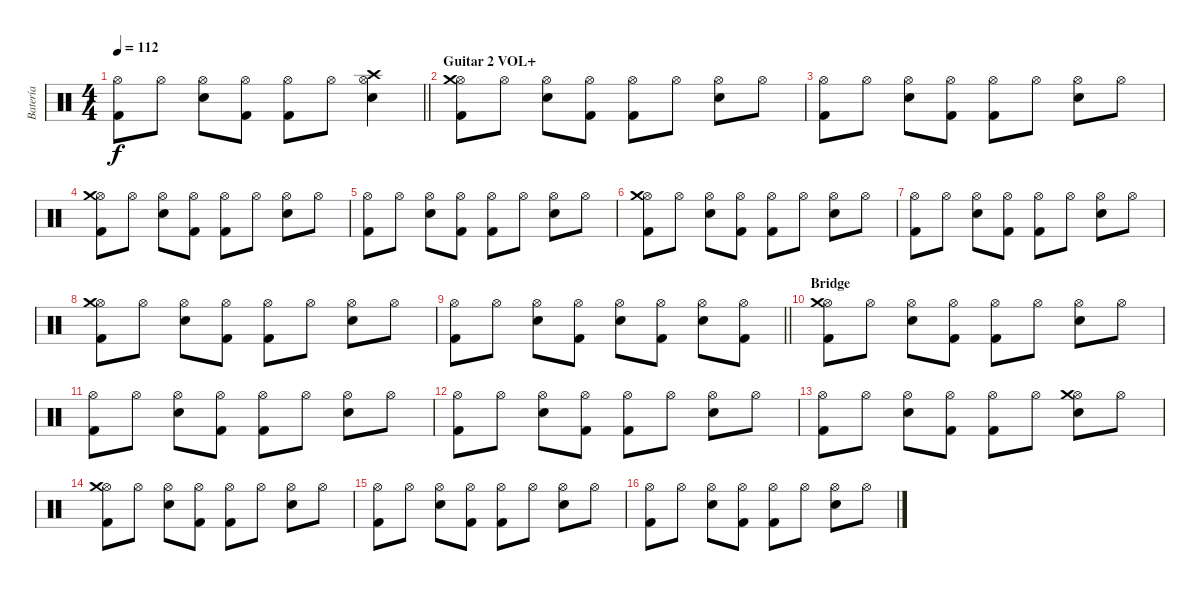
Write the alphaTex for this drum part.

\track ("Batería" "Batería") {instrument percussion}
\staff {score}
\articulation defaults
\ts (4 4)
\tempo 112
\clef neutral
\barLineRight lightlight
\ks c
("Hi-Hat (open)" "Kick (hit) 2").8{dy f} "Hi-Hat (open)".8 ("Hi-Hat (open)" "Electric Snare (hit)").8 ("Hi-Hat (open)" "Kick (hit) 2").8 ("Hi-Hat (open)" "Kick (hit) 2").8 "Hi-Hat (open)".8 ("Hi-Hat (open)" "Electric Snare (hit)" "Crash high (hit)").4 |
\section ("" "Guitar 2 VOL+")
("Hi-Hat (open)" "Kick (hit) 2" "Crash medium (hit)").8 "Hi-Hat (open)".8 ("Hi-Hat (open)" "Electric Snare (hit)").8 ("Hi-Hat (open)" "Kick (hit) 2").8 ("Hi-Hat (open)" "Kick (hit) 2").8 "Hi-Hat (open)".8 ("Hi-Hat (open)" "Electric Snare (hit)").8 "Hi-Hat (open)".8 |
("Hi-Hat (open)" "Kick (hit) 2").8 "Hi-Hat (open)".8 ("Hi-Hat (open)" "Electric Snare (hit)").8 ("Hi-Hat (open)" "Kick (hit) 2").8 ("Hi-Hat (open)" "Kick (hit) 2").8 "Hi-Hat (open)".8 ("Hi-Hat (open)" "Electric Snare (hit)").8 "Hi-Hat (open)".8 |
("Hi-Hat (open)" "Kick (hit) 2" "Crash medium (hit)").8 "Hi-Hat (open)".8 ("Hi-Hat (open)" "Electric Snare (hit)").8 ("Hi-Hat (open)" "Kick (hit) 2").8 ("Hi-Hat (open)" "Kick (hit) 2").8 "Hi-Hat (open)".8 ("Hi-Hat (open)" "Electric Snare (hit)").8 "Hi-Hat (open)".8 |
("Hi-Hat (open)" "Kick (hit) 2").8 "Hi-Hat (open)".8 ("Hi-Hat (open)" "Electric Snare (hit)").8 ("Hi-Hat (open)" "Kick (hit) 2").8 ("Hi-Hat (open)" "Kick (hit) 2").8 "Hi-Hat (open)".8 ("Hi-Hat (open)" "Electric Snare (hit)").8 "Hi-Hat (open)".8 |
("Hi-Hat (open)" "Kick (hit) 2" "Crash medium (hit)").8 "Hi-Hat (open)".8 ("Hi-Hat (open)" "Electric Snare (hit)").8 ("Hi-Hat (open)" "Kick (hit) 2").8 ("Hi-Hat (open)" "Kick (hit) 2").8 "Hi-Hat (open)".8 ("Hi-Hat (open)" "Electric Snare (hit)").8 "Hi-Hat (open)".8 |
("Hi-Hat (open)" "Kick (hit) 2").8 "Hi-Hat (open)".8 ("Hi-Hat (open)" "Electric Snare (hit)").8 ("Hi-Hat (open)" "Kick (hit) 2").8 ("Hi-Hat (open)" "Kick (hit) 2").8 "Hi-Hat (open)".8 ("Hi-Hat (open)" "Electric Snare (hit)").8 "Hi-Hat (open)".8 |
("Hi-Hat (open)" "Kick (hit) 2" "Crash medium (hit)").8 "Hi-Hat (open)".8 ("Hi-Hat (open)" "Electric Snare (hit)").8 ("Hi-Hat (open)" "Kick (hit) 2").8 ("Hi-Hat (open)" "Kick (hit) 2").8 "Hi-Hat (open)".8 ("Hi-Hat (open)" "Electric Snare (hit)").8 "Hi-Hat (open)".8 |
\barLineRight lightlight
("Hi-Hat (open)" "Kick (hit) 2").8 "Hi-Hat (open)".8 ("Hi-Hat (open)" "Electric Snare (hit)").8 ("Hi-Hat (open)" "Kick (hit) 2").8 ("Hi-Hat (open)" "Electric Snare (hit)").8 ("Hi-Hat (open)" "Kick (hit) 2").8 ("Hi-Hat (open)" "Electric Snare (hit)").8 ("Hi-Hat (open)" "Kick (hit) 2").8 |
\section ("" "Bridge")
("Hi-Hat (open)" "Kick (hit) 2" "Crash medium (hit)").8 "Hi-Hat (open)".8 ("Hi-Hat (open)" "Electric Snare (hit)").8 ("Hi-Hat (open)" "Kick (hit) 2").8 ("Hi-Hat (open)" "Kick (hit) 2").8 "Hi-Hat (open)".8 ("Hi-Hat (open)" "Electric Snare (hit)").8 "Hi-Hat (open)".8 |
("Hi-Hat (open)" "Kick (hit) 2").8 "Hi-Hat (open)".8 ("Hi-Hat (open)" "Electric Snare (hit)").8 ("Hi-Hat (open)" "Kick (hit) 2").8 ("Hi-Hat (open)" "Kick (hit) 2").8 "Hi-Hat (open)".8 ("Hi-Hat (open)" "Electric Snare (hit)").8 "Hi-Hat (open)".8 |
("Hi-Hat (open)" "Kick (hit) 2").8 "Hi-Hat (open)".8 ("Hi-Hat (open)" "Electric Snare (hit)").8 ("Hi-Hat (open)" "Kick (hit) 2").8 ("Hi-Hat (open)" "Kick (hit) 2").8 "Hi-Hat (open)".8 ("Hi-Hat (open)" "Electric Snare (hit)").8 "Hi-Hat (open)".8 |
("Hi-Hat (open)" "Kick (hit) 2").8 "Hi-Hat (open)".8 ("Hi-Hat (open)" "Electric Snare (hit)").8 ("Hi-Hat (open)" "Kick (hit) 2").8 ("Hi-Hat (open)" "Kick (hit) 2").8 "Hi-Hat (open)".8 ("Hi-Hat (open)" "Electric Snare (hit)" "Crash medium (hit)").8 "Hi-Hat (open)".8 |
("Hi-Hat (open)" "Kick (hit) 2" "Crash medium (hit)").8 "Hi-Hat (open)".8 ("Hi-Hat (open)" "Electric Snare (hit)").8 ("Hi-Hat (open)" "Kick (hit) 2").8 ("Hi-Hat (open)" "Kick (hit) 2").8 "Hi-Hat (open)".8 ("Hi-Hat (open)" "Electric Snare (hit)").8 "Hi-Hat (open)".8 |
("Hi-Hat (open)" "Kick (hit) 2").8 "Hi-Hat (open)".8 ("Hi-Hat (open)" "Electric Snare (hit)").8 ("Hi-Hat (open)" "Kick (hit) 2").8 ("Hi-Hat (open)" "Kick (hit) 2").8 "Hi-Hat (open)".8 ("Hi-Hat (open)" "Electric Snare (hit)").8 "Hi-Hat (open)".8 |
("Hi-Hat (open)" "Kick (hit) 2").8 "Hi-Hat (open)".8 ("Hi-Hat (open)" "Electric Snare (hit)").8 ("Hi-Hat (open)" "Kick (hit) 2").8 ("Hi-Hat (open)" "Kick (hit) 2").8 "Hi-Hat (open)".8 ("Hi-Hat (open)" "Electric Snare (hit)").8 "Hi-Hat (open)".8
